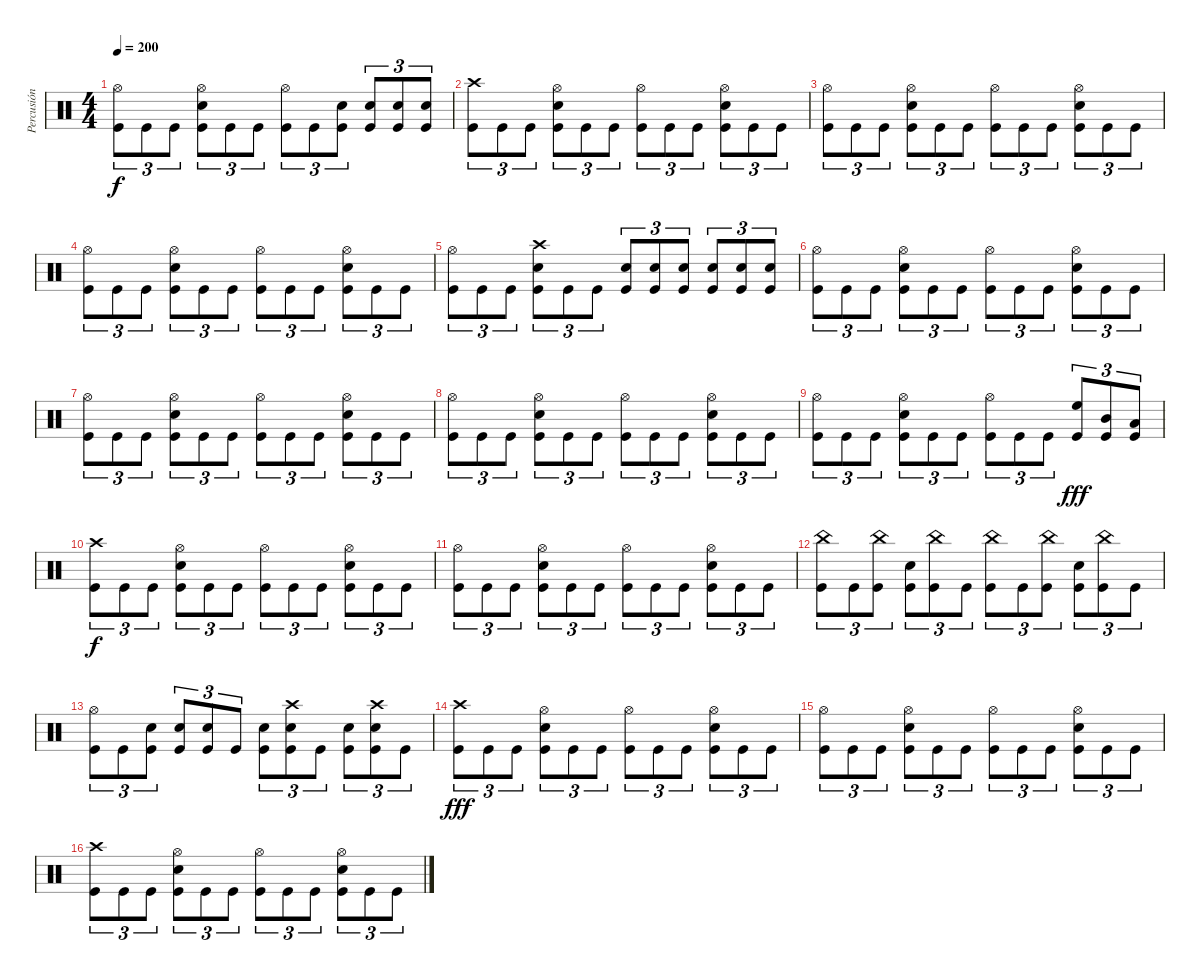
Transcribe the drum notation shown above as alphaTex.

\track ("Percusión" "Percusión") {instrument percussion}
\staff {score}
\articulation defaults
\ts (4 4)
\tempo 200
\clef neutral
\ks c
("Hi-Hat (open)" "Kick (hit)").8{tu (3 2) dy f} "Kick (hit)".8{tu (3 2)} "Kick (hit)".8{tu (3 2)} ("Hi-Hat (open)" "Electric Snare (hit)" "Kick (hit)").8{tu (3 2)} "Kick (hit)".8{tu (3 2)} "Kick (hit)".8{tu (3 2)} ("Hi-Hat (open)" "Kick (hit)").8{tu (3 2)} "Kick (hit)".8{tu (3 2)} ("Electric Snare (hit)" "Kick (hit)").8{tu (3 2)} ("Electric Snare (hit)" "Kick (hit)").8{tu (3 2)} ("Electric Snare (hit)" "Kick (hit)").8{tu (3 2)} ("Electric Snare (hit)" "Kick (hit)").8{tu (3 2)} |
("Crash high (hit)" "Kick (hit)").8{tu (3 2)} "Kick (hit)".8{tu (3 2)} "Kick (hit)".8{tu (3 2)} ("Hi-Hat (open)" "Electric Snare (hit)" "Kick (hit)").8{tu (3 2)} "Kick (hit)".8{tu (3 2)} "Kick (hit)".8{tu (3 2)} ("Hi-Hat (open)" "Kick (hit)").8{tu (3 2)} "Kick (hit)".8{tu (3 2)} "Kick (hit)".8{tu (3 2)} ("Hi-Hat (open)" "Electric Snare (hit)" "Kick (hit)").8{tu (3 2)} "Kick (hit)".8{tu (3 2)} "Kick (hit)".8{tu (3 2)} |
("Hi-Hat (open)" "Kick (hit)").8{tu (3 2)} "Kick (hit)".8{tu (3 2)} "Kick (hit)".8{tu (3 2)} ("Hi-Hat (open)" "Electric Snare (hit)" "Kick (hit)").8{tu (3 2)} "Kick (hit)".8{tu (3 2)} "Kick (hit)".8{tu (3 2)} ("Hi-Hat (open)" "Kick (hit)").8{tu (3 2)} "Kick (hit)".8{tu (3 2)} "Kick (hit)".8{tu (3 2)} ("Hi-Hat (open)" "Electric Snare (hit)" "Kick (hit)").8{tu (3 2)} "Kick (hit)".8{tu (3 2)} "Kick (hit)".8{tu (3 2)} |
("Hi-Hat (open)" "Kick (hit)").8{tu (3 2)} "Kick (hit)".8{tu (3 2)} "Kick (hit)".8{tu (3 2)} ("Hi-Hat (open)" "Electric Snare (hit)" "Kick (hit)").8{tu (3 2)} "Kick (hit)".8{tu (3 2)} "Kick (hit)".8{tu (3 2)} ("Hi-Hat (open)" "Kick (hit)").8{tu (3 2)} "Kick (hit)".8{tu (3 2)} "Kick (hit)".8{tu (3 2)} ("Hi-Hat (open)" "Electric Snare (hit)" "Kick (hit)").8{tu (3 2)} "Kick (hit)".8{tu (3 2)} "Kick (hit)".8{tu (3 2)} |
("Hi-Hat (open)" "Kick (hit)").8{tu (3 2)} "Kick (hit)".8{tu (3 2)} "Kick (hit)".8{tu (3 2)} ("Crash high (hit)" "Electric Snare (hit)" "Kick (hit)").8{tu (3 2)} "Kick (hit)".8{tu (3 2)} "Kick (hit)".8{tu (3 2)} ("Electric Snare (hit)" "Kick (hit)").8{tu (3 2)} ("Electric Snare (hit)" "Kick (hit)").8{tu (3 2)} ("Electric Snare (hit)" "Kick (hit)").8{tu (3 2)} ("Electric Snare (hit)" "Kick (hit)").8{tu (3 2)} ("Electric Snare (hit)" "Kick (hit)").8{tu (3 2)} ("Electric Snare (hit)" "Kick (hit)").8{tu (3 2)} |
("Hi-Hat (open)" "Kick (hit)").8{tu (3 2)} "Kick (hit)".8{tu (3 2)} "Kick (hit)".8{tu (3 2)} ("Hi-Hat (open)" "Electric Snare (hit)" "Kick (hit)").8{tu (3 2)} "Kick (hit)".8{tu (3 2)} "Kick (hit)".8{tu (3 2)} ("Hi-Hat (open)" "Kick (hit)").8{tu (3 2)} "Kick (hit)".8{tu (3 2)} "Kick (hit)".8{tu (3 2)} ("Hi-Hat (open)" "Electric Snare (hit)" "Kick (hit)").8{tu (3 2)} "Kick (hit)".8{tu (3 2)} "Kick (hit)".8{tu (3 2)} |
("Hi-Hat (open)" "Kick (hit)").8{tu (3 2)} "Kick (hit)".8{tu (3 2)} "Kick (hit)".8{tu (3 2)} ("Hi-Hat (open)" "Electric Snare (hit)" "Kick (hit)").8{tu (3 2)} "Kick (hit)".8{tu (3 2)} "Kick (hit)".8{tu (3 2)} ("Hi-Hat (open)" "Kick (hit)").8{tu (3 2)} "Kick (hit)".8{tu (3 2)} "Kick (hit)".8{tu (3 2)} ("Hi-Hat (open)" "Electric Snare (hit)" "Kick (hit)").8{tu (3 2)} "Kick (hit)".8{tu (3 2)} "Kick (hit)".8{tu (3 2)} |
("Hi-Hat (open)" "Kick (hit)").8{tu (3 2)} "Kick (hit)".8{tu (3 2)} "Kick (hit)".8{tu (3 2)} ("Hi-Hat (open)" "Electric Snare (hit)" "Kick (hit)").8{tu (3 2)} "Kick (hit)".8{tu (3 2)} "Kick (hit)".8{tu (3 2)} ("Hi-Hat (open)" "Kick (hit)").8{tu (3 2)} "Kick (hit)".8{tu (3 2)} "Kick (hit)".8{tu (3 2)} ("Hi-Hat (open)" "Electric Snare (hit)" "Kick (hit)").8{tu (3 2)} "Kick (hit)".8{tu (3 2)} "Kick (hit)".8{tu (3 2)} |
("Hi-Hat (open)" "Kick (hit)").8{tu (3 2)} "Kick (hit)".8{tu (3 2)} "Kick (hit)".8{tu (3 2)} ("Hi-Hat (open)" "Electric Snare (hit)" "Kick (hit)").8{tu (3 2)} "Kick (hit)".8{tu (3 2)} "Kick (hit)".8{tu (3 2)} ("Hi-Hat (open)" "Kick (hit)").8{tu (3 2)} "Kick (hit)".8{tu (3 2)} "Kick (hit)".8{tu (3 2)} ("High Floor Tom (hit)" "Kick (hit)").8{tu (3 2) dy fff} ("Mid Tom (hit)" "Kick (hit)").8{tu (3 2)} ("Low Tom (hit)" "Kick (hit)").8{tu (3 2)} |
("Crash high (hit)" "Kick (hit)").8{tu (3 2) dy f} "Kick (hit)".8{tu (3 2)} "Kick (hit)".8{tu (3 2)} ("Hi-Hat (open)" "Electric Snare (hit)" "Kick (hit)").8{tu (3 2)} "Kick (hit)".8{tu (3 2)} "Kick (hit)".8{tu (3 2)} ("Hi-Hat (open)" "Kick (hit)").8{tu (3 2)} "Kick (hit)".8{tu (3 2)} "Kick (hit)".8{tu (3 2)} ("Hi-Hat (open)" "Electric Snare (hit)" "Kick (hit)").8{tu (3 2)} "Kick (hit)".8{tu (3 2)} "Kick (hit)".8{tu (3 2)} |
("Hi-Hat (open)" "Kick (hit)").8{tu (3 2)} "Kick (hit)".8{tu (3 2)} "Kick (hit)".8{tu (3 2)} ("Hi-Hat (open)" "Electric Snare (hit)" "Kick (hit)").8{tu (3 2)} "Kick (hit)".8{tu (3 2)} "Kick (hit)".8{tu (3 2)} ("Hi-Hat (open)" "Kick (hit)").8{tu (3 2)} "Kick (hit)".8{tu (3 2)} "Kick (hit)".8{tu (3 2)} ("Hi-Hat (open)" "Electric Snare (hit)" "Kick (hit)").8{tu (3 2)} "Kick (hit)".8{tu (3 2)} "Kick (hit)".8{tu (3 2)} |
("China (hit)" "Kick (hit)").8{tu (3 2)} "Kick (hit)".8{tu (3 2)} ("China (hit)" "Kick (hit)").8{tu (3 2)} ("Electric Snare (hit)" "Kick (hit)").8{tu (3 2)} ("China (hit)" "Kick (hit)").8{tu (3 2)} "Kick (hit)".8{tu (3 2)} ("China (hit)" "Kick (hit)").8{tu (3 2)} "Kick (hit)".8{tu (3 2)} ("China (hit)" "Kick (hit)").8{tu (3 2)} ("Electric Snare (hit)" "Kick (hit)").8{tu (3 2)} ("China (hit)" "Kick (hit)").8{tu (3 2)} "Kick (hit)".8{tu (3 2)} |
("Hi-Hat (open)" "Kick (hit)").8{tu (3 2)} "Kick (hit)".8{tu (3 2)} ("Electric Snare (hit)" "Kick (hit)").8{tu (3 2)} ("Electric Snare (hit)" "Kick (hit)").8{tu (3 2)} ("Electric Snare (hit)" "Kick (hit)").8{tu (3 2)} "Kick (hit)".8{tu (3 2)} ("Electric Snare (hit)" "Kick (hit)").8{tu (3 2)} ("Crash high (hit)" "Electric Snare (hit)" "Kick (hit)").8{tu (3 2)} "Kick (hit)".8{tu (3 2)} ("Electric Snare (hit)" "Kick (hit)").8{tu (3 2)} ("Crash high (hit)" "Electric Snare (hit)" "Kick (hit)").8{tu (3 2)} "Kick (hit)".8{tu (3 2)} |
("Crash high (hit)" "Kick (hit)").8{tu (3 2) dy fff} "Kick (hit)".8{tu (3 2)} "Kick (hit)".8{tu (3 2)} ("Hi-Hat (open)" "Electric Snare (hit)" "Kick (hit)").8{tu (3 2)} "Kick (hit)".8{tu (3 2)} "Kick (hit)".8{tu (3 2)} ("Hi-Hat (open)" "Kick (hit)").8{tu (3 2)} "Kick (hit)".8{tu (3 2)} "Kick (hit)".8{tu (3 2)} ("Hi-Hat (open)" "Electric Snare (hit)" "Kick (hit)").8{tu (3 2)} "Kick (hit)".8{tu (3 2)} "Kick (hit)".8{tu (3 2)} |
("Hi-Hat (open)" "Kick (hit)").8{tu (3 2)} "Kick (hit)".8{tu (3 2)} "Kick (hit)".8{tu (3 2)} ("Hi-Hat (open)" "Electric Snare (hit)" "Kick (hit)").8{tu (3 2)} "Kick (hit)".8{tu (3 2)} "Kick (hit)".8{tu (3 2)} ("Hi-Hat (open)" "Kick (hit)").8{tu (3 2)} "Kick (hit)".8{tu (3 2)} "Kick (hit)".8{tu (3 2)} ("Hi-Hat (open)" "Electric Snare (hit)" "Kick (hit)").8{tu (3 2)} "Kick (hit)".8{tu (3 2)} "Kick (hit)".8{tu (3 2)} |
("Crash high (hit)" "Kick (hit)").8{tu (3 2)} "Kick (hit)".8{tu (3 2)} "Kick (hit)".8{tu (3 2)} ("Hi-Hat (open)" "Electric Snare (hit)" "Kick (hit)").8{tu (3 2)} "Kick (hit)".8{tu (3 2)} "Kick (hit)".8{tu (3 2)} ("Hi-Hat (open)" "Kick (hit)").8{tu (3 2)} "Kick (hit)".8{tu (3 2)} "Kick (hit)".8{tu (3 2)} ("Hi-Hat (open)" "Electric Snare (hit)" "Kick (hit)").8{tu (3 2)} "Kick (hit)".8{tu (3 2)} "Kick (hit)".8{tu (3 2)}
